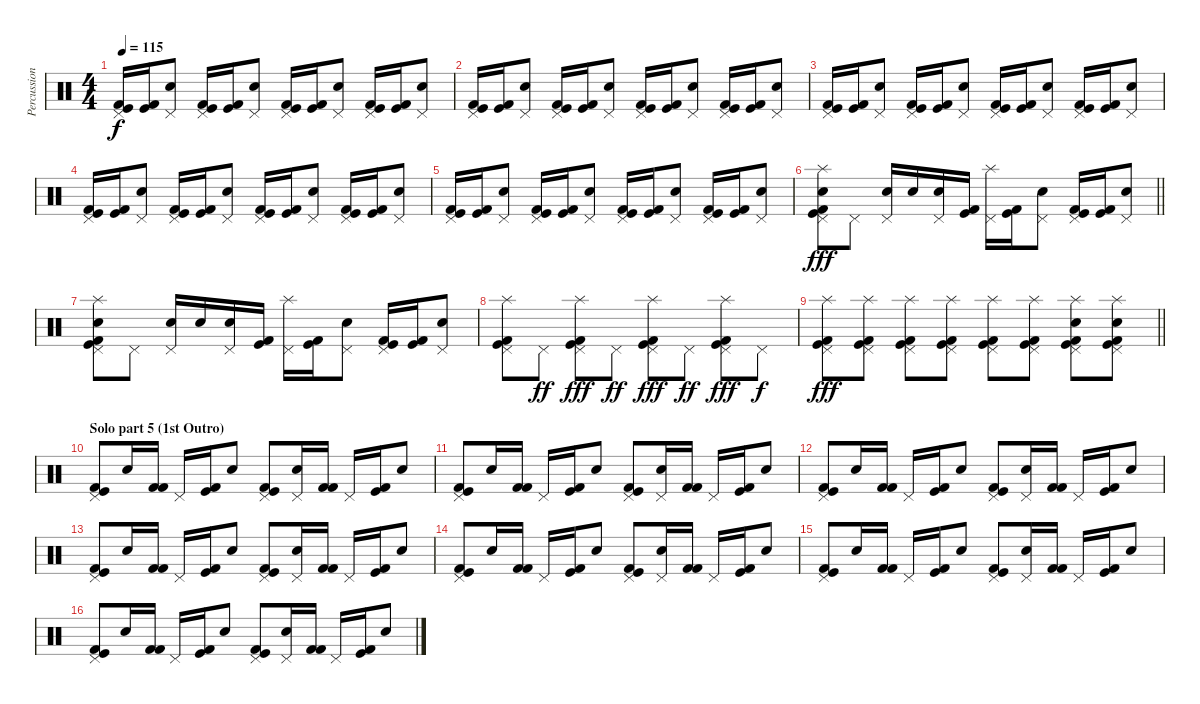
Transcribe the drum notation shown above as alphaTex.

\track ("Percussion" "Percussion") {instrument percussion}
\staff {score}
\articulation defaults
\ts (4 4)
\tempo 115
\clef neutral
\ks c
("Pedal Hi-Hat (hit)" "Kick (hit)" "Kick (hit) 2").16{dy f} ("Kick (hit)" "Kick (hit) 2").16 ("Snare (hit) 2" "Pedal Hi-Hat (hit)").8 ("Pedal Hi-Hat (hit)" "Kick (hit)" "Kick (hit) 2").16 ("Kick (hit)" "Kick (hit) 2").16 ("Snare (hit) 2" "Pedal Hi-Hat (hit)").8 ("Pedal Hi-Hat (hit)" "Kick (hit)" "Kick (hit) 2").16 ("Kick (hit)" "Kick (hit) 2").16 ("Snare (hit) 2" "Pedal Hi-Hat (hit)").8 ("Pedal Hi-Hat (hit)" "Kick (hit)" "Kick (hit) 2").16 ("Kick (hit)" "Kick (hit) 2").16 ("Snare (hit) 2" "Pedal Hi-Hat (hit)").8 |
("Pedal Hi-Hat (hit)" "Kick (hit)" "Kick (hit) 2").16 ("Kick (hit)" "Kick (hit) 2").16 ("Snare (hit) 2" "Pedal Hi-Hat (hit)").8 ("Pedal Hi-Hat (hit)" "Kick (hit)" "Kick (hit) 2").16 ("Kick (hit)" "Kick (hit) 2").16 ("Snare (hit) 2" "Pedal Hi-Hat (hit)").8 ("Pedal Hi-Hat (hit)" "Kick (hit)" "Kick (hit) 2").16 ("Kick (hit)" "Kick (hit) 2").16 ("Snare (hit) 2" "Pedal Hi-Hat (hit)").8 ("Pedal Hi-Hat (hit)" "Kick (hit)" "Kick (hit) 2").16 ("Kick (hit)" "Kick (hit) 2").16 ("Snare (hit) 2" "Pedal Hi-Hat (hit)").8 |
("Pedal Hi-Hat (hit)" "Kick (hit)" "Kick (hit) 2").16 ("Kick (hit)" "Kick (hit) 2").16 ("Snare (hit) 2" "Pedal Hi-Hat (hit)").8 ("Pedal Hi-Hat (hit)" "Kick (hit)" "Kick (hit) 2").16 ("Kick (hit)" "Kick (hit) 2").16 ("Snare (hit) 2" "Pedal Hi-Hat (hit)").8 ("Pedal Hi-Hat (hit)" "Kick (hit)" "Kick (hit) 2").16 ("Kick (hit)" "Kick (hit) 2").16 ("Snare (hit) 2" "Pedal Hi-Hat (hit)").8 ("Pedal Hi-Hat (hit)" "Kick (hit)" "Kick (hit) 2").16 ("Kick (hit)" "Kick (hit) 2").16 ("Snare (hit) 2" "Pedal Hi-Hat (hit)").8 |
("Pedal Hi-Hat (hit)" "Kick (hit)" "Kick (hit) 2").16 ("Kick (hit)" "Kick (hit) 2").16 ("Snare (hit) 2" "Pedal Hi-Hat (hit)").8 ("Pedal Hi-Hat (hit)" "Kick (hit)" "Kick (hit) 2").16 ("Kick (hit)" "Kick (hit) 2").16 ("Snare (hit) 2" "Pedal Hi-Hat (hit)").8 ("Pedal Hi-Hat (hit)" "Kick (hit)" "Kick (hit) 2").16 ("Kick (hit)" "Kick (hit) 2").16 ("Snare (hit) 2" "Pedal Hi-Hat (hit)").8 ("Pedal Hi-Hat (hit)" "Kick (hit)" "Kick (hit) 2").16 ("Kick (hit)" "Kick (hit) 2").16 ("Snare (hit) 2" "Pedal Hi-Hat (hit)").8 |
("Pedal Hi-Hat (hit)" "Kick (hit)" "Kick (hit) 2").16 ("Kick (hit)" "Kick (hit) 2").16 ("Snare (hit) 2" "Pedal Hi-Hat (hit)").8 ("Pedal Hi-Hat (hit)" "Kick (hit)" "Kick (hit) 2").16 ("Kick (hit)" "Kick (hit) 2").16 ("Snare (hit) 2" "Pedal Hi-Hat (hit)").8 ("Pedal Hi-Hat (hit)" "Kick (hit)" "Kick (hit) 2").16 ("Kick (hit)" "Kick (hit) 2").16 ("Snare (hit) 2" "Pedal Hi-Hat (hit)").8 ("Pedal Hi-Hat (hit)" "Kick (hit)" "Kick (hit) 2").16 ("Kick (hit)" "Kick (hit) 2").16 ("Snare (hit) 2" "Pedal Hi-Hat (hit)").8 |
\barLineRight lightlight
("Splash (hit)" "Snare (hit) 2" "Pedal Hi-Hat (hit)" "Kick (hit)" "Kick (hit) 2").8{dy fff} "Pedal Hi-Hat (hit)".8 ("Snare (hit) 2" "Pedal Hi-Hat (hit)").16 "Snare (hit) 2".16 ("Snare (hit) 2" "Pedal Hi-Hat (hit)").16 ("Kick (hit)" "Kick (hit) 2").16 ("Splash (hit)" "Pedal Hi-Hat (hit)").16 ("Kick (hit)" "Kick (hit) 2").16 ("Snare (hit) 2" "Pedal Hi-Hat (hit)").8 ("Pedal Hi-Hat (hit)" "Kick (hit)" "Kick (hit) 2").16 ("Kick (hit)" "Kick (hit) 2").16 ("Snare (hit) 2" "Pedal Hi-Hat (hit)").8 |
("Splash (hit)" "Snare (hit) 2" "Pedal Hi-Hat (hit)" "Kick (hit)" "Kick (hit) 2").8 "Pedal Hi-Hat (hit)".8 ("Snare (hit) 2" "Pedal Hi-Hat (hit)").16 "Snare (hit) 2".16 ("Snare (hit) 2" "Pedal Hi-Hat (hit)").16 ("Kick (hit)" "Kick (hit) 2").16 ("Splash (hit)" "Pedal Hi-Hat (hit)").16 ("Kick (hit)" "Kick (hit) 2").16 ("Snare (hit) 2" "Pedal Hi-Hat (hit)").8 ("Pedal Hi-Hat (hit)" "Kick (hit)" "Kick (hit) 2").16 ("Kick (hit)" "Kick (hit) 2").16 ("Snare (hit) 2" "Pedal Hi-Hat (hit)").8 |
("Splash (hit)" "Pedal Hi-Hat (hit)" "Kick (hit)" "Kick (hit) 2").8 "Pedal Hi-Hat (hit)".8{dy ff} ("Splash (hit)" "Pedal Hi-Hat (hit)" "Kick (hit)" "Kick (hit) 2").8{dy fff} "Pedal Hi-Hat (hit)".8{dy ff} ("Splash (hit)" "Pedal Hi-Hat (hit)" "Kick (hit)" "Kick (hit) 2").8{dy fff} "Pedal Hi-Hat (hit)".8{dy ff} ("Splash (hit)" "Pedal Hi-Hat (hit)" "Kick (hit)" "Kick (hit) 2").8{dy fff} "Pedal Hi-Hat (hit)".8{dy f} |
\barLineRight lightlight
("Splash (hit)" "Pedal Hi-Hat (hit)" "Kick (hit)" "Kick (hit) 2").8{dy fff} ("Splash (hit)" "Pedal Hi-Hat (hit)" "Kick (hit)" "Kick (hit) 2").8 ("Splash (hit)" "Pedal Hi-Hat (hit)" "Kick (hit)" "Kick (hit) 2").8 ("Splash (hit)" "Pedal Hi-Hat (hit)" "Kick (hit)" "Kick (hit) 2").8 ("Splash (hit)" "Pedal Hi-Hat (hit)" "Kick (hit)" "Kick (hit) 2").8 ("Splash (hit)" "Pedal Hi-Hat (hit)" "Kick (hit)" "Kick (hit) 2").8 ("Splash (hit)" "Snare (hit) 2" "Pedal Hi-Hat (hit)" "Kick (hit)" "Kick (hit) 2").8 ("Splash (hit)" "Snare (hit) 2" "Pedal Hi-Hat (hit)" "Kick (hit)" "Kick (hit) 2").8 |
\section ("" "Solo part 5 (1st Outro)")
("Pedal Hi-Hat (hit)" "Kick (hit) 2" "Kick (hit)").8 "Snare (hit) 2".16 ("Kick (hit) 2" "Kick (hit) 2").16 "Pedal Hi-Hat (hit)".16 ("Kick (hit)" "Kick (hit) 2").16 "Snare (hit) 2".8 ("Pedal Hi-Hat (hit)" "Kick (hit) 2" "Kick (hit)").8 ("Pedal Hi-Hat (hit)" "Snare (hit) 2").16 ("Kick (hit) 2" "Kick (hit) 2").16 "Pedal Hi-Hat (hit)".16 ("Kick (hit)" "Kick (hit) 2").16 "Snare (hit) 2".8 |
("Pedal Hi-Hat (hit)" "Kick (hit) 2" "Kick (hit)").8 "Snare (hit) 2".16 ("Kick (hit) 2" "Kick (hit) 2").16 "Pedal Hi-Hat (hit)".16 ("Kick (hit)" "Kick (hit) 2").16 "Snare (hit) 2".8 ("Pedal Hi-Hat (hit)" "Kick (hit) 2" "Kick (hit)").8 ("Pedal Hi-Hat (hit)" "Snare (hit) 2").16 ("Kick (hit) 2" "Kick (hit) 2").16 "Pedal Hi-Hat (hit)".16 ("Kick (hit)" "Kick (hit) 2").16 "Snare (hit) 2".8 |
("Pedal Hi-Hat (hit)" "Kick (hit) 2" "Kick (hit)").8 "Snare (hit) 2".16 ("Kick (hit) 2" "Kick (hit) 2").16 "Pedal Hi-Hat (hit)".16 ("Kick (hit)" "Kick (hit) 2").16 "Snare (hit) 2".8 ("Pedal Hi-Hat (hit)" "Kick (hit) 2" "Kick (hit)").8 ("Pedal Hi-Hat (hit)" "Snare (hit) 2").16 ("Kick (hit) 2" "Kick (hit) 2").16 "Pedal Hi-Hat (hit)".16 ("Kick (hit)" "Kick (hit) 2").16 "Snare (hit) 2".8 |
("Pedal Hi-Hat (hit)" "Kick (hit) 2" "Kick (hit)").8 "Snare (hit) 2".16 ("Kick (hit) 2" "Kick (hit) 2").16 "Pedal Hi-Hat (hit)".16 ("Kick (hit)" "Kick (hit) 2").16 "Snare (hit) 2".8 ("Pedal Hi-Hat (hit)" "Kick (hit) 2" "Kick (hit)").8 ("Pedal Hi-Hat (hit)" "Snare (hit) 2").16 ("Kick (hit) 2" "Kick (hit) 2").16 "Pedal Hi-Hat (hit)".16 ("Kick (hit)" "Kick (hit) 2").16 "Snare (hit) 2".8 |
("Pedal Hi-Hat (hit)" "Kick (hit) 2" "Kick (hit)").8 "Snare (hit) 2".16 ("Kick (hit) 2" "Kick (hit) 2").16 "Pedal Hi-Hat (hit)".16 ("Kick (hit)" "Kick (hit) 2").16 "Snare (hit) 2".8 ("Pedal Hi-Hat (hit)" "Kick (hit) 2" "Kick (hit)").8 ("Pedal Hi-Hat (hit)" "Snare (hit) 2").16 ("Kick (hit) 2" "Kick (hit) 2").16 "Pedal Hi-Hat (hit)".16 ("Kick (hit)" "Kick (hit) 2").16 "Snare (hit) 2".8 |
("Pedal Hi-Hat (hit)" "Kick (hit) 2" "Kick (hit)").8 "Snare (hit) 2".16 ("Kick (hit) 2" "Kick (hit) 2").16 "Pedal Hi-Hat (hit)".16 ("Kick (hit)" "Kick (hit) 2").16 "Snare (hit) 2".8 ("Pedal Hi-Hat (hit)" "Kick (hit) 2" "Kick (hit)").8 ("Pedal Hi-Hat (hit)" "Snare (hit) 2").16 ("Kick (hit) 2" "Kick (hit) 2").16 "Pedal Hi-Hat (hit)".16 ("Kick (hit)" "Kick (hit) 2").16 "Snare (hit) 2".8 |
("Pedal Hi-Hat (hit)" "Kick (hit) 2" "Kick (hit)").8 "Snare (hit) 2".16 ("Kick (hit) 2" "Kick (hit) 2").16 "Pedal Hi-Hat (hit)".16 ("Kick (hit)" "Kick (hit) 2").16 "Snare (hit) 2".8 ("Pedal Hi-Hat (hit)" "Kick (hit) 2" "Kick (hit)").8 ("Pedal Hi-Hat (hit)" "Snare (hit) 2").16 ("Kick (hit) 2" "Kick (hit) 2").16 "Pedal Hi-Hat (hit)".16 ("Kick (hit)" "Kick (hit) 2").16 "Snare (hit) 2".8
